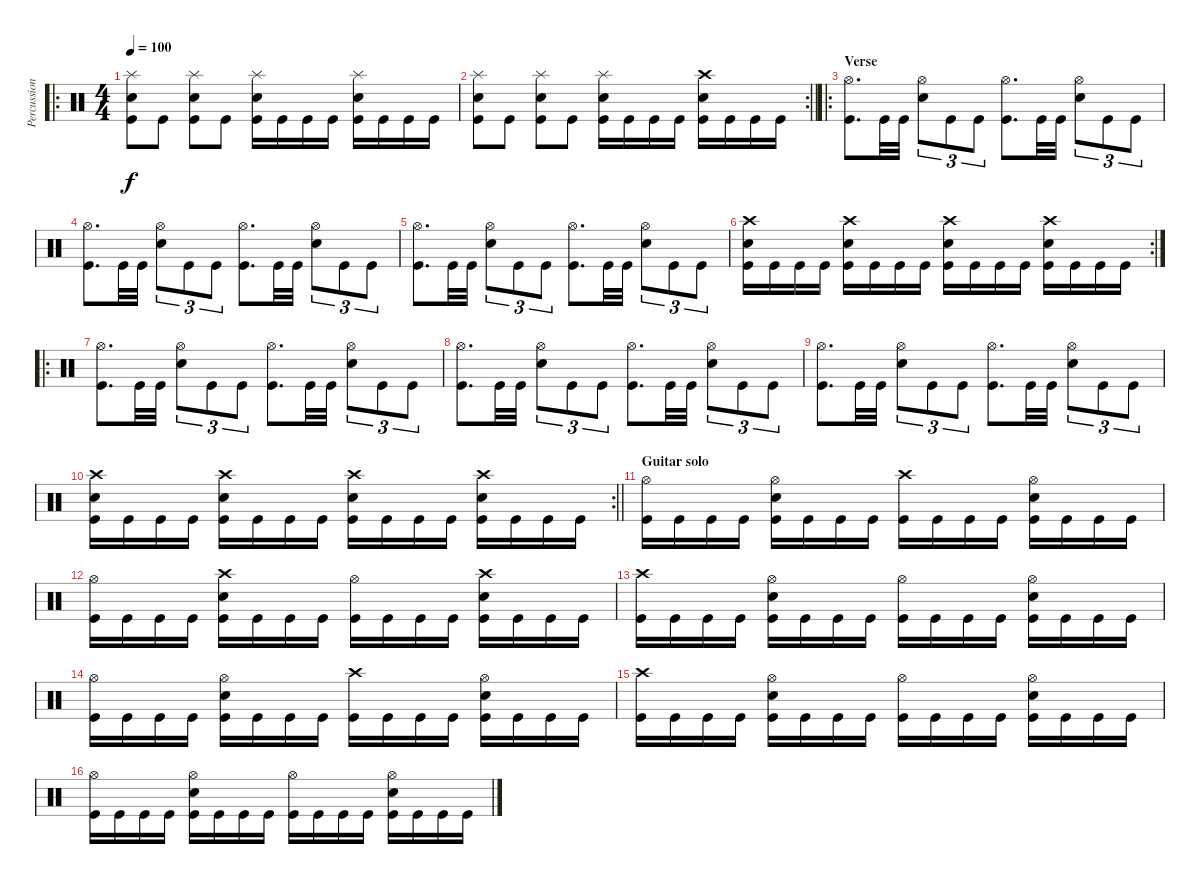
\track ("Percussion" "Percussion") {instrument percussion}
\staff {score}
\articulation defaults
\ro
\ts (4 4)
\tempo 100
\clef neutral
\ks c
("Splash (hit)" "Electric Snare (hit)" "Kick (hit)").8{dy f} "Kick (hit)".8 ("Splash (hit)" "Electric Snare (hit)" "Kick (hit)").8 "Kick (hit)".8 ("Splash (hit)" "Electric Snare (hit)" "Kick (hit)").16 "Kick (hit)".16 "Kick (hit)".16 "Kick (hit)".16 ("Splash (hit)" "Electric Snare (hit)" "Kick (hit)").16 "Kick (hit)".16 "Kick (hit)".16 "Kick (hit)".16 |
\rc 2
\barLineRight lightlight
("Splash (hit)" "Electric Snare (hit)" "Kick (hit)").8 "Kick (hit)".8 ("Splash (hit)" "Electric Snare (hit)" "Kick (hit)").8 "Kick (hit)".8 ("Splash (hit)" "Electric Snare (hit)" "Kick (hit)").16 "Kick (hit)".16 "Kick (hit)".16 "Kick (hit)".16 ("Crash high (hit)" "Electric Snare (hit)" "Kick (hit)").16 "Kick (hit)".16 "Kick (hit)".16 "Kick (hit)".16 |
\ro
\section ("" "Verse")
("Hi-Hat (open)" "Kick (hit)").8{d} "Kick (hit)".32 "Kick (hit)".32 ("Hi-Hat (open)" "Electric Snare (hit)").8{tu (3 2)} "Kick (hit)".8{tu (3 2)} "Kick (hit)".8{tu (3 2)} ("Hi-Hat (open)" "Kick (hit)").8{d} "Kick (hit)".32 "Kick (hit)".32 ("Hi-Hat (open)" "Electric Snare (hit)").8{tu (3 2)} "Kick (hit)".8{tu (3 2)} "Kick (hit)".8{tu (3 2)} |
("Hi-Hat (open)" "Kick (hit)").8{d} "Kick (hit)".32 "Kick (hit)".32 ("Hi-Hat (open)" "Electric Snare (hit)").8{tu (3 2)} "Kick (hit)".8{tu (3 2)} "Kick (hit)".8{tu (3 2)} ("Hi-Hat (open)" "Kick (hit)").8{d} "Kick (hit)".32 "Kick (hit)".32 ("Hi-Hat (open)" "Electric Snare (hit)").8{tu (3 2)} "Kick (hit)".8{tu (3 2)} "Kick (hit)".8{tu (3 2)} |
("Hi-Hat (open)" "Kick (hit)").8{d} "Kick (hit)".32 "Kick (hit)".32 ("Hi-Hat (open)" "Electric Snare (hit)").8{tu (3 2)} "Kick (hit)".8{tu (3 2)} "Kick (hit)".8{tu (3 2)} ("Hi-Hat (open)" "Kick (hit)").8{d} "Kick (hit)".32 "Kick (hit)".32 ("Hi-Hat (open)" "Electric Snare (hit)").8{tu (3 2)} "Kick (hit)".8{tu (3 2)} "Kick (hit)".8{tu (3 2)} |
\rc 2
("Crash high (hit)" "Electric Snare (hit)" "Kick (hit)").16 "Kick (hit)".16 "Kick (hit)".16 "Kick (hit)".16 ("Crash high (hit)" "Electric Snare (hit)" "Kick (hit)").16 "Kick (hit)".16 "Kick (hit)".16 "Kick (hit)".16 ("Crash high (hit)" "Electric Snare (hit)" "Kick (hit)").16 "Kick (hit)".16 "Kick (hit)".16 "Kick (hit)".16 ("Crash high (hit)" "Electric Snare (hit)" "Kick (hit)").16 "Kick (hit)".16 "Kick (hit)".16 "Kick (hit)".16 |
\ro
("Hi-Hat (open)" "Kick (hit)").8{d} "Kick (hit)".32 "Kick (hit)".32 ("Hi-Hat (open)" "Electric Snare (hit)").8{tu (3 2)} "Kick (hit)".8{tu (3 2)} "Kick (hit)".8{tu (3 2)} ("Hi-Hat (open)" "Kick (hit)").8{d} "Kick (hit)".32 "Kick (hit)".32 ("Hi-Hat (open)" "Electric Snare (hit)").8{tu (3 2)} "Kick (hit)".8{tu (3 2)} "Kick (hit)".8{tu (3 2)} |
("Hi-Hat (open)" "Kick (hit)").8{d} "Kick (hit)".32 "Kick (hit)".32 ("Hi-Hat (open)" "Electric Snare (hit)").8{tu (3 2)} "Kick (hit)".8{tu (3 2)} "Kick (hit)".8{tu (3 2)} ("Hi-Hat (open)" "Kick (hit)").8{d} "Kick (hit)".32 "Kick (hit)".32 ("Hi-Hat (open)" "Electric Snare (hit)").8{tu (3 2)} "Kick (hit)".8{tu (3 2)} "Kick (hit)".8{tu (3 2)} |
("Hi-Hat (open)" "Kick (hit)").8{d} "Kick (hit)".32 "Kick (hit)".32 ("Hi-Hat (open)" "Electric Snare (hit)").8{tu (3 2)} "Kick (hit)".8{tu (3 2)} "Kick (hit)".8{tu (3 2)} ("Hi-Hat (open)" "Kick (hit)").8{d} "Kick (hit)".32 "Kick (hit)".32 ("Hi-Hat (open)" "Electric Snare (hit)").8{tu (3 2)} "Kick (hit)".8{tu (3 2)} "Kick (hit)".8{tu (3 2)} |
\rc 2
\barLineRight lightlight
("Crash high (hit)" "Electric Snare (hit)" "Kick (hit)").16 "Kick (hit)".16 "Kick (hit)".16 "Kick (hit)".16 ("Crash high (hit)" "Electric Snare (hit)" "Kick (hit)").16 "Kick (hit)".16 "Kick (hit)".16 "Kick (hit)".16 ("Crash high (hit)" "Electric Snare (hit)" "Kick (hit)").16 "Kick (hit)".16 "Kick (hit)".16 "Kick (hit)".16 ("Crash high (hit)" "Electric Snare (hit)" "Kick (hit)").16 "Kick (hit)".16 "Kick (hit)".16 "Kick (hit)".16 |
\section ("" "Guitar solo")
("Hi-Hat (open)" "Kick (hit)").16 "Kick (hit)".16 "Kick (hit)".16 "Kick (hit)".16 ("Hi-Hat (open)" "Electric Snare (hit)" "Kick (hit)").16 "Kick (hit)".16 "Kick (hit)".16 "Kick (hit)".16 ("Crash high (hit)" "Kick (hit)").16 "Kick (hit)".16 "Kick (hit)".16 "Kick (hit)".16 ("Hi-Hat (open)" "Electric Snare (hit)" "Kick (hit)").16 "Kick (hit)".16 "Kick (hit)".16 "Kick (hit)".16 |
("Hi-Hat (open)" "Kick (hit)").16 "Kick (hit)".16 "Kick (hit)".16 "Kick (hit)".16 ("Crash high (hit)" "Electric Snare (hit)" "Kick (hit)").16 "Kick (hit)".16 "Kick (hit)".16 "Kick (hit)".16 ("Hi-Hat (open)" "Kick (hit)").16 "Kick (hit)".16 "Kick (hit)".16 "Kick (hit)".16 ("Crash high (hit)" "Electric Snare (hit)" "Kick (hit)").16 "Kick (hit)".16 "Kick (hit)".16 "Kick (hit)".16 |
("Crash high (hit)" "Kick (hit)").16 "Kick (hit)".16 "Kick (hit)".16 "Kick (hit)".16 ("Hi-Hat (open)" "Electric Snare (hit)" "Kick (hit)").16 "Kick (hit)".16 "Kick (hit)".16 "Kick (hit)".16 ("Hi-Hat (open)" "Kick (hit)").16 "Kick (hit)".16 "Kick (hit)".16 "Kick (hit)".16 ("Hi-Hat (open)" "Electric Snare (hit)" "Kick (hit)").16 "Kick (hit)".16 "Kick (hit)".16 "Kick (hit)".16 |
("Hi-Hat (open)" "Kick (hit)").16 "Kick (hit)".16 "Kick (hit)".16 "Kick (hit)".16 ("Hi-Hat (open)" "Electric Snare (hit)" "Kick (hit)").16 "Kick (hit)".16 "Kick (hit)".16 "Kick (hit)".16 ("Crash high (hit)" "Kick (hit)").16 "Kick (hit)".16 "Kick (hit)".16 "Kick (hit)".16 ("Hi-Hat (open)" "Electric Snare (hit)" "Kick (hit)").16 "Kick (hit)".16 "Kick (hit)".16 "Kick (hit)".16 |
("Crash high (hit)" "Kick (hit)").16 "Kick (hit)".16 "Kick (hit)".16 "Kick (hit)".16 ("Hi-Hat (open)" "Electric Snare (hit)" "Kick (hit)").16 "Kick (hit)".16 "Kick (hit)".16 "Kick (hit)".16 ("Hi-Hat (open)" "Kick (hit)").16 "Kick (hit)".16 "Kick (hit)".16 "Kick (hit)".16 ("Hi-Hat (open)" "Electric Snare (hit)" "Kick (hit)").16 "Kick (hit)".16 "Kick (hit)".16 "Kick (hit)".16 |
("Hi-Hat (open)" "Kick (hit)").16 "Kick (hit)".16 "Kick (hit)".16 "Kick (hit)".16 ("Hi-Hat (open)" "Electric Snare (hit)" "Kick (hit)").16 "Kick (hit)".16 "Kick (hit)".16 "Kick (hit)".16 ("Hi-Hat (open)" "Kick (hit)").16 "Kick (hit)".16 "Kick (hit)".16 "Kick (hit)".16 ("Hi-Hat (open)" "Electric Snare (hit)" "Kick (hit)").16 "Kick (hit)".16 "Kick (hit)".16 "Kick (hit)".16
